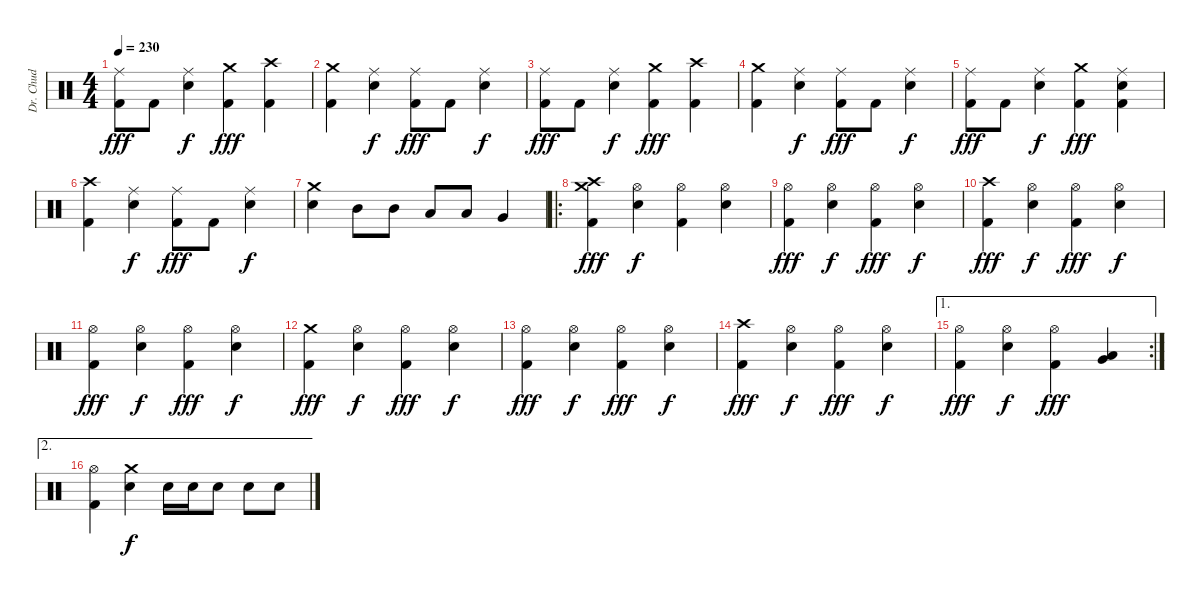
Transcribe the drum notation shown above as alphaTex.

\track ("Dr. Chud" "Dr. Chud") {instrument percussion}
\staff {score}
\articulation defaults
\ts (4 4)
\tempo 230
\clef neutral
\ks c
("Ride (middle)" "Kick (hit) 2").8{dy fff} "Kick (hit) 2".8 ("Ride (middle)" "Snare (hit) 2").4{dy f} ("Crash medium (hit)" "Kick (hit) 2").4{dy fff} ("Crash high (hit)" "Kick (hit) 2").4 |
("Crash medium (hit)" "Kick (hit) 2").4 ("Ride (middle)" "Snare (hit) 2").4{dy f} ("Ride (middle)" "Kick (hit) 2").8{dy fff} "Kick (hit) 2".8 ("Ride (middle)" "Snare (hit) 2").4{dy f} |
("Ride (middle)" "Kick (hit) 2").8{dy fff} "Kick (hit) 2".8 ("Ride (middle)" "Snare (hit) 2").4{dy f} ("Crash medium (hit)" "Kick (hit) 2").4{dy fff} ("Crash high (hit)" "Kick (hit) 2").4 |
("Crash medium (hit)" "Kick (hit) 2").4 ("Ride (middle)" "Snare (hit) 2").4{dy f} ("Ride (middle)" "Kick (hit) 2").8{dy fff} "Kick (hit) 2".8 ("Ride (middle)" "Snare (hit) 2").4{dy f} |
("Ride (middle)" "Kick (hit) 2").8{dy fff} "Kick (hit) 2".8 ("Ride (middle)" "Snare (hit) 2").4{dy f} ("Crash medium (hit)" "Kick (hit) 2").4{dy fff} ("Ride (middle)" "Snare (hit) 2" "Kick (hit) 2").4 |
("Crash high (hit)" "Kick (hit) 2").4 ("Ride (middle)" "Snare (hit) 2").4{dy f} ("Ride (middle)" "Kick (hit) 2").8{dy fff} "Kick (hit) 2".8 ("Ride (middle)" "Snare (hit) 2").4{dy f} |
("Crash medium (hit)" "Snare (hit) 2").4 "Mid Tom (hit)".8 "Mid Tom (hit)".8 "Low Tom (hit)".8 "Low Tom (hit)".8 "Very Low Tom (hit)".4 |
\ro
("Crash high (hit)" "Crash medium (hit)" "Kick (hit) 2").4{dy fff} ("Hi-Hat (open)" "Snare (hit) 2").4{dy f} ("Hi-Hat (open)" "Kick (hit) 2").4 ("Hi-Hat (open)" "Snare (hit) 2").4 |
("Hi-Hat (open)" "Kick (hit) 2").4{dy fff} ("Hi-Hat (open)" "Snare (hit) 2").4{dy f} ("Hi-Hat (open)" "Kick (hit) 2").4{dy fff} ("Hi-Hat (open)" "Snare (hit) 2").4{dy f} |
("Crash high (hit)" "Kick (hit) 2").4{dy fff} ("Hi-Hat (open)" "Snare (hit) 2").4{dy f} ("Hi-Hat (open)" "Kick (hit) 2").4{dy fff} ("Hi-Hat (open)" "Snare (hit) 2").4{dy f} |
("Hi-Hat (open)" "Kick (hit) 2").4{dy fff} ("Hi-Hat (open)" "Snare (hit) 2").4{dy f} ("Hi-Hat (open)" "Kick (hit) 2").4{dy fff} ("Hi-Hat (open)" "Snare (hit) 2").4{dy f} |
("Crash medium (hit)" "Kick (hit) 2").4{dy fff} ("Hi-Hat (open)" "Snare (hit) 2").4{dy f} ("Hi-Hat (open)" "Kick (hit) 2").4{dy fff} ("Hi-Hat (open)" "Snare (hit) 2").4{dy f} |
("Hi-Hat (open)" "Kick (hit) 2").4{dy fff} ("Hi-Hat (open)" "Snare (hit) 2").4{dy f} ("Hi-Hat (open)" "Kick (hit) 2").4{dy fff} ("Hi-Hat (open)" "Snare (hit) 2").4{dy f} |
("Crash high (hit)" "Kick (hit) 2").4{dy fff} ("Hi-Hat (open)" "Snare (hit) 2").4{dy f} ("Hi-Hat (open)" "Kick (hit) 2").4{dy fff} ("Hi-Hat (open)" "Snare (hit) 2").4{dy f} |
\ae 1
\rc 2
("Hi-Hat (open)" "Kick (hit) 2").4{dy fff} ("Hi-Hat (open)" "Snare (hit) 2").4{dy f} ("Hi-Hat (open)" "Kick (hit) 2").4{dy fff} ("Low Tom (hit)" "Very Low Tom (hit)").4 |
\ae 2
("Hi-Hat (open)" "Kick (hit) 2").4 ("Crash medium (hit)" "Snare (hit) 2").4{dy f} "Snare (hit) 2".16 "Snare (hit) 2".16 "Snare (hit) 2".8 "Snare (hit) 2".8 "Snare (hit) 2".8
